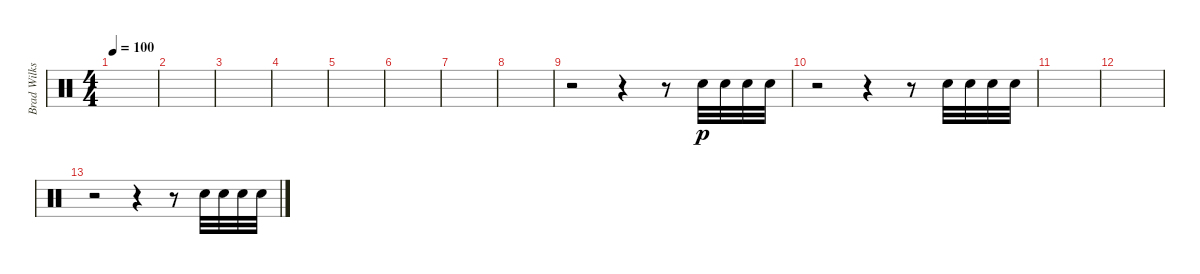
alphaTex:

\track ("Brad Wilks (some extras)" "Brad Wilks") {instrument percussion}
\staff {score}
\articulation defaults
\ts (4 4)
\tempo 100
\clef neutral
\ks c
|
|
|
|
|
|
|
|
r.2 r.4 r.8 "Electric Snare (hit)".32{dy p} "Electric Snare (hit)".32 "Electric Snare (hit)".32 "Electric Snare (hit)".32 |
r.2 r.4 r.8 "Electric Snare (hit)".32 "Electric Snare (hit)".32 "Electric Snare (hit)".32 "Electric Snare (hit)".32 |
|
|
r.2 r.4 r.8 "Electric Snare (hit)".32 "Electric Snare (hit)".32 "Electric Snare (hit)".32 "Electric Snare (hit)".32
